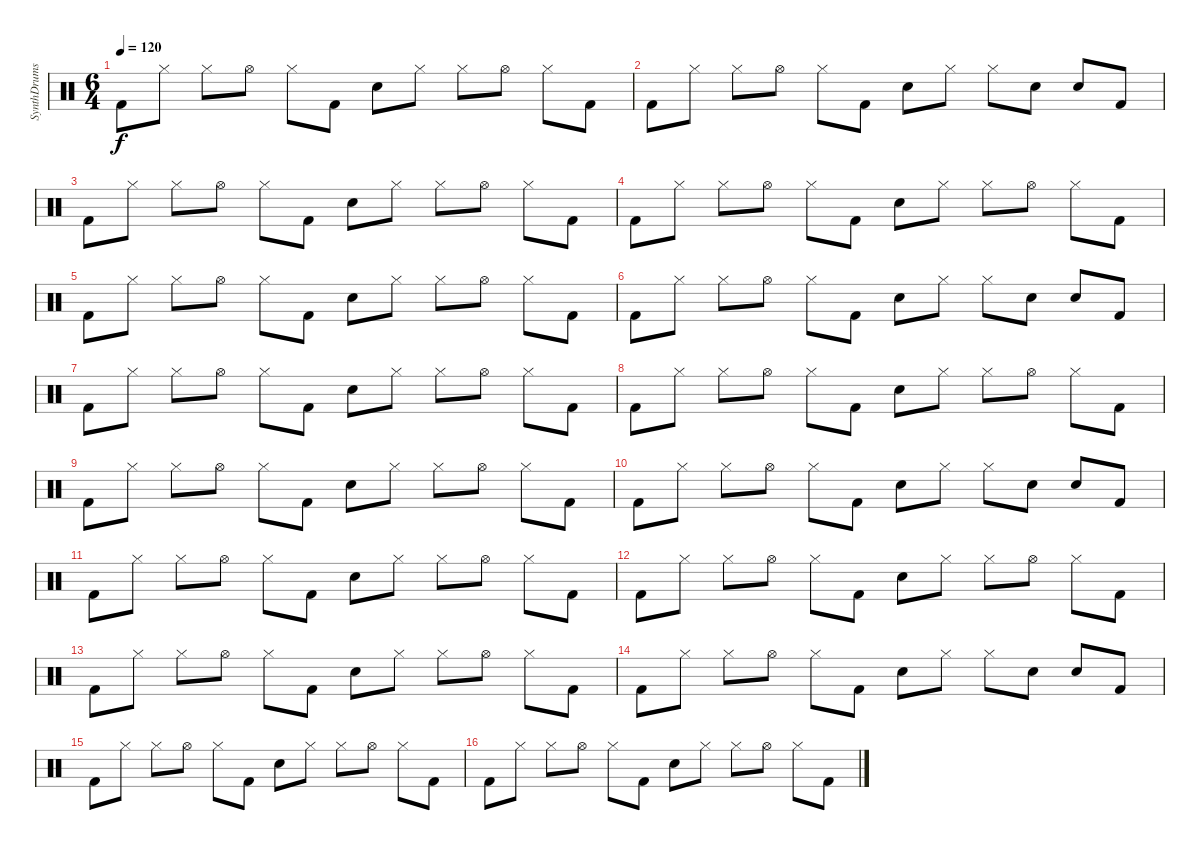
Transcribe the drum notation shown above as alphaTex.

\track ("SynthDrums" "SynthDrums") {instrument percussion}
\staff {score}
\articulation defaults
\ts (6 4)
\tempo 120
\clef neutral
\ks c "Kick (hit) 2".8{dy f} "Hi-Hat (closed)".8 "Hi-Hat (closed)".8 "Hi-Hat (open)".8 "Hi-Hat (closed)".8 "Kick (hit) 2".8 "Electric Snare (hit)".8 "Hi-Hat (closed)".8 "Hi-Hat (closed)".8 "Hi-Hat (open)".8 "Hi-Hat (closed)".8 "Kick (hit) 2".8
|
"Kick (hit) 2".8 "Hi-Hat (closed)".8 "Hi-Hat (closed)".8 "Hi-Hat (open)".8 "Hi-Hat (closed)".8 "Kick (hit) 2".8 "Electric Snare (hit)".8 "Hi-Hat (closed)".8 "Hi-Hat (closed)".8 "Electric Snare (hit)".8 "Electric Snare (hit)".8 "Kick (hit) 2".8 |
"Kick (hit) 2".8 "Hi-Hat (closed)".8 "Hi-Hat (closed)".8 "Hi-Hat (open)".8 "Hi-Hat (closed)".8 "Kick (hit) 2".8 "Electric Snare (hit)".8 "Hi-Hat (closed)".8 "Hi-Hat (closed)".8 "Hi-Hat (open)".8 "Hi-Hat (closed)".8 "Kick (hit) 2".8 |
"Kick (hit) 2".8 "Hi-Hat (closed)".8 "Hi-Hat (closed)".8 "Hi-Hat (open)".8 "Hi-Hat (closed)".8 "Kick (hit) 2".8 "Electric Snare (hit)".8 "Hi-Hat (closed)".8 "Hi-Hat (closed)".8 "Hi-Hat (open)".8 "Hi-Hat (closed)".8 "Kick (hit) 2".8 |
"Kick (hit) 2".8 "Hi-Hat (closed)".8 "Hi-Hat (closed)".8 "Hi-Hat (open)".8 "Hi-Hat (closed)".8 "Kick (hit) 2".8 "Electric Snare (hit)".8 "Hi-Hat (closed)".8 "Hi-Hat (closed)".8 "Hi-Hat (open)".8 "Hi-Hat (closed)".8 "Kick (hit) 2".8 |
"Kick (hit) 2".8 "Hi-Hat (closed)".8 "Hi-Hat (closed)".8 "Hi-Hat (open)".8 "Hi-Hat (closed)".8 "Kick (hit) 2".8 "Electric Snare (hit)".8 "Hi-Hat (closed)".8 "Hi-Hat (closed)".8 "Electric Snare (hit)".8 "Electric Snare (hit)".8 "Kick (hit) 2".8 |
"Kick (hit) 2".8 "Hi-Hat (closed)".8 "Hi-Hat (closed)".8 "Hi-Hat (open)".8 "Hi-Hat (closed)".8 "Kick (hit) 2".8 "Electric Snare (hit)".8 "Hi-Hat (closed)".8 "Hi-Hat (closed)".8 "Hi-Hat (open)".8 "Hi-Hat (closed)".8 "Kick (hit) 2".8 |
"Kick (hit) 2".8 "Hi-Hat (closed)".8 "Hi-Hat (closed)".8 "Hi-Hat (open)".8 "Hi-Hat (closed)".8 "Kick (hit) 2".8 "Electric Snare (hit)".8 "Hi-Hat (closed)".8 "Hi-Hat (closed)".8 "Hi-Hat (open)".8 "Hi-Hat (closed)".8 "Kick (hit) 2".8 |
"Kick (hit) 2".8 "Hi-Hat (closed)".8 "Hi-Hat (closed)".8 "Hi-Hat (open)".8 "Hi-Hat (closed)".8 "Kick (hit) 2".8 "Electric Snare (hit)".8 "Hi-Hat (closed)".8 "Hi-Hat (closed)".8 "Hi-Hat (open)".8 "Hi-Hat (closed)".8 "Kick (hit) 2".8 |
"Kick (hit) 2".8 "Hi-Hat (closed)".8 "Hi-Hat (closed)".8 "Hi-Hat (open)".8 "Hi-Hat (closed)".8 "Kick (hit) 2".8 "Electric Snare (hit)".8 "Hi-Hat (closed)".8 "Hi-Hat (closed)".8 "Electric Snare (hit)".8 "Electric Snare (hit)".8 "Kick (hit) 2".8 |
"Kick (hit) 2".8 "Hi-Hat (closed)".8 "Hi-Hat (closed)".8 "Hi-Hat (open)".8 "Hi-Hat (closed)".8 "Kick (hit) 2".8 "Electric Snare (hit)".8 "Hi-Hat (closed)".8 "Hi-Hat (closed)".8 "Hi-Hat (open)".8 "Hi-Hat (closed)".8 "Kick (hit) 2".8 |
"Kick (hit) 2".8 "Hi-Hat (closed)".8 "Hi-Hat (closed)".8 "Hi-Hat (open)".8 "Hi-Hat (closed)".8 "Kick (hit) 2".8 "Electric Snare (hit)".8 "Hi-Hat (closed)".8 "Hi-Hat (closed)".8 "Hi-Hat (open)".8 "Hi-Hat (closed)".8 "Kick (hit) 2".8 |
"Kick (hit) 2".8 "Hi-Hat (closed)".8 "Hi-Hat (closed)".8 "Hi-Hat (open)".8 "Hi-Hat (closed)".8 "Kick (hit) 2".8 "Electric Snare (hit)".8 "Hi-Hat (closed)".8 "Hi-Hat (closed)".8 "Hi-Hat (open)".8 "Hi-Hat (closed)".8 "Kick (hit) 2".8 |
"Kick (hit) 2".8 "Hi-Hat (closed)".8 "Hi-Hat (closed)".8 "Hi-Hat (open)".8 "Hi-Hat (closed)".8 "Kick (hit) 2".8 "Electric Snare (hit)".8 "Hi-Hat (closed)".8 "Hi-Hat (closed)".8 "Electric Snare (hit)".8 "Electric Snare (hit)".8 "Kick (hit) 2".8 |
"Kick (hit) 2".8 "Hi-Hat (closed)".8 "Hi-Hat (closed)".8 "Hi-Hat (open)".8 "Hi-Hat (closed)".8 "Kick (hit) 2".8 "Electric Snare (hit)".8 "Hi-Hat (closed)".8 "Hi-Hat (closed)".8 "Hi-Hat (open)".8 "Hi-Hat (closed)".8 "Kick (hit) 2".8 |
"Kick (hit) 2".8 "Hi-Hat (closed)".8 "Hi-Hat (closed)".8 "Hi-Hat (open)".8 "Hi-Hat (closed)".8 "Kick (hit) 2".8 "Electric Snare (hit)".8 "Hi-Hat (closed)".8 "Hi-Hat (closed)".8 "Hi-Hat (open)".8 "Hi-Hat (closed)".8 "Kick (hit) 2".8
